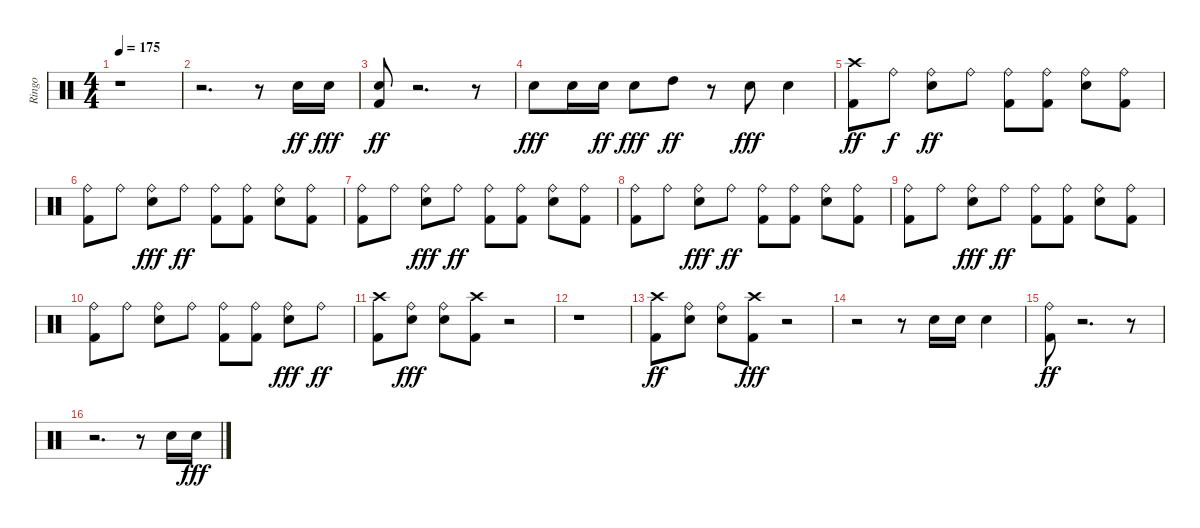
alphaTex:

\track ("Ringo" "Ringo") {instrument percussion}
\staff {score}
\articulation defaults
\ts (4 4)
\tempo 175
\clef neutral
\ks c
r.1{dy ff} |
r.2{d} r.8 "Snare (hit) 2".16 "Snare (hit) 2".16{dy fff} |
("Snare (hit) 2" "Kick (hit) 2").8{dy ff} r.2{d} r.8 |
"Snare (hit) 2".8{dy fff} "Snare (hit) 2".16 "Snare (hit) 2".16{dy ff} "Snare (hit) 2".8{dy fff} "High Tom (hit)".8{dy ff} r.8 "Snare (hit) 2".8{dy fff} "Snare (hit) 2".4 |
("Kick (hit) 2" "Crash high (hit)").8{dy ff} "Ride (bell)".8{dy f} ("Snare (hit) 2" "Ride (bell)").8{dy ff} "Ride (bell)".8 ("Kick (hit) 2" "Ride (bell)").8 ("Kick (hit) 2" "Ride (bell)").8 ("Snare (hit) 2" "Ride (bell)").8 ("Kick (hit) 2" "Ride (bell)").8 |
("Kick (hit) 2" "Ride (bell)").8 "Ride (bell)".8 ("Ride (bell)" "Snare (hit) 2").8{dy fff} "Ride (bell)".8{dy ff} ("Kick (hit) 2" "Ride (bell)").8 ("Kick (hit) 2" "Ride (bell)").8 ("Snare (hit) 2" "Ride (bell)").8 ("Ride (bell)" "Kick (hit) 2").8 |
("Kick (hit) 2" "Ride (bell)").8 "Ride (bell)".8 ("Ride (bell)" "Snare (hit) 2").8{dy fff} "Ride (bell)".8{dy ff} ("Kick (hit) 2" "Ride (bell)").8 ("Kick (hit) 2" "Ride (bell)").8 ("Snare (hit) 2" "Ride (bell)").8 ("Ride (bell)" "Kick (hit) 2").8 |
("Kick (hit) 2" "Ride (bell)").8 "Ride (bell)".8 ("Ride (bell)" "Snare (hit) 2").8{dy fff} "Ride (bell)".8{dy ff} ("Kick (hit) 2" "Ride (bell)").8 ("Kick (hit) 2" "Ride (bell)").8 ("Snare (hit) 2" "Ride (bell)").8 ("Ride (bell)" "Kick (hit) 2").8 |
("Kick (hit) 2" "Ride (bell)").8 "Ride (bell)".8 ("Ride (bell)" "Snare (hit) 2").8{dy fff} "Ride (bell)".8{dy ff} ("Kick (hit) 2" "Ride (bell)").8 ("Kick (hit) 2" "Ride (bell)").8 ("Snare (hit) 2" "Ride (bell)").8 ("Ride (bell)" "Kick (hit) 2").8 |
("Kick (hit) 2" "Ride (bell)").8 "Ride (bell)".8 ("Snare (hit) 2" "Ride (bell)").8 "Ride (bell)".8 ("Kick (hit) 2" "Ride (bell)").8 ("Kick (hit) 2" "Ride (bell)").8 ("Snare (hit) 2" "Ride (bell)").8{dy fff} "Ride (bell)".8{dy ff} |
("Kick (hit) 2" "Crash high (hit)").8 ("Ride (bell)" "Snare (hit) 2").8{dy fff} ("Snare (hit) 2" "Ride (bell)").8 ("Crash high (hit)" "Kick (hit) 2").8 r.2 |
r.1 |
("Kick (hit) 2" "Crash high (hit)").8{dy ff} ("Snare (hit) 2" "Ride (bell)").8 ("Snare (hit) 2" "Ride (bell)").8 ("Crash high (hit)" "Kick (hit) 2").8{dy fff} r.2 |
r.2 r.8 "Snare (hit) 2".16 "Snare (hit) 2".16 "Snare (hit) 2".4 |
("Kick (hit) 2" "Ride (bell)").8{dy ff} r.2{d} r.8 |
r.2{d} r.8 "Snare (hit) 2".16 "Snare (hit) 2".16{dy fff}
